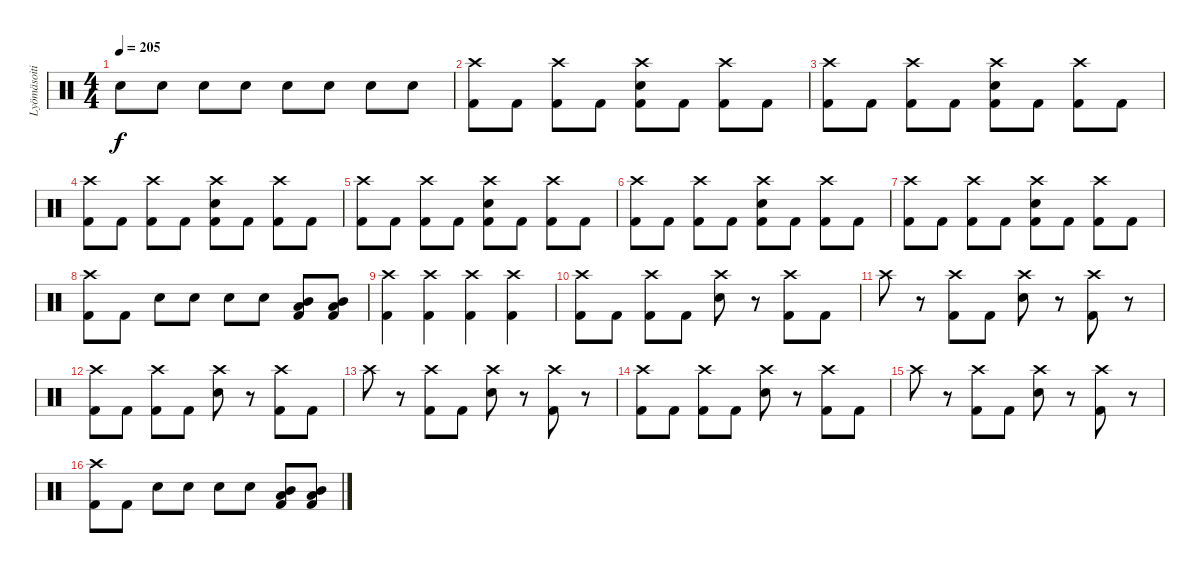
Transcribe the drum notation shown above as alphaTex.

\track ("Lyömäsoitin" "Lyömäsoiti") {instrument percussion}
\staff {score}
\articulation defaults
\ts (4 4)
\tempo 205
\clef neutral
\ks c "Electric Snare (hit)".8{dy f} "Electric Snare (hit)".8 "Electric Snare (hit)".8 "Electric Snare (hit)".8 "Electric Snare (hit)".8 "Electric Snare (hit)".8 "Electric Snare (hit)".8 "Electric Snare (hit)".8
|
("Kick (hit) 2" "Crash high (hit)").8 "Kick (hit) 2".8 ("Kick (hit) 2" "Crash high (hit)").8 "Kick (hit) 2".8 ("Kick (hit) 2" "Electric Snare (hit)" "Crash high (hit)").8 "Kick (hit) 2".8 ("Kick (hit) 2" "Crash high (hit)").8 "Kick (hit) 2".8 |
("Kick (hit) 2" "Crash high (hit)").8 "Kick (hit) 2".8 ("Kick (hit) 2" "Crash high (hit)").8 "Kick (hit) 2".8 ("Kick (hit) 2" "Electric Snare (hit)" "Crash high (hit)").8 "Kick (hit) 2".8 ("Kick (hit) 2" "Crash high (hit)").8 "Kick (hit) 2".8 |
("Kick (hit) 2" "Crash high (hit)").8 "Kick (hit) 2".8 ("Kick (hit) 2" "Crash high (hit)").8 "Kick (hit) 2".8 ("Kick (hit) 2" "Electric Snare (hit)" "Crash high (hit)").8 "Kick (hit) 2".8 ("Kick (hit) 2" "Crash high (hit)").8 "Kick (hit) 2".8 |
("Kick (hit) 2" "Crash high (hit)").8 "Kick (hit) 2".8 ("Kick (hit) 2" "Crash high (hit)").8 "Kick (hit) 2".8 ("Kick (hit) 2" "Electric Snare (hit)" "Crash high (hit)").8 "Kick (hit) 2".8 ("Kick (hit) 2" "Crash high (hit)").8 "Kick (hit) 2".8 |
("Kick (hit) 2" "Crash high (hit)").8 "Kick (hit) 2".8 ("Kick (hit) 2" "Crash high (hit)").8 "Kick (hit) 2".8 ("Kick (hit) 2" "Electric Snare (hit)" "Crash high (hit)").8 "Kick (hit) 2".8 ("Kick (hit) 2" "Crash high (hit)").8 "Kick (hit) 2".8 |
("Kick (hit) 2" "Crash high (hit)").8 "Kick (hit) 2".8 ("Kick (hit) 2" "Crash high (hit)").8 "Kick (hit) 2".8 ("Kick (hit) 2" "Electric Snare (hit)" "Crash high (hit)").8 "Kick (hit) 2".8 ("Kick (hit) 2" "Crash high (hit)").8 "Kick (hit) 2".8 |
("Kick (hit) 2" "Crash high (hit)").8 "Kick (hit) 2".8 "Electric Snare (hit)".8 "Electric Snare (hit)".8 "Electric Snare (hit)".8 "Electric Snare (hit)".8 ("Kick (hit) 2" "Mid Tom (hit)" "Low Tom (hit)").8 ("Kick (hit) 2" "Mid Tom (hit)" "Low Tom (hit)").8 |
("Kick (hit) 2" "Crash high (hit)").4 ("Kick (hit) 2" "Crash high (hit)").4 ("Kick (hit) 2" "Crash high (hit)").4 ("Kick (hit) 2" "Crash high (hit)").4 |
("Kick (hit) 2" "Crash high (hit)").8 "Kick (hit) 2".8 ("Kick (hit) 2" "Crash high (hit)").8 "Kick (hit) 2".8 ("Electric Snare (hit)" "Crash high (hit)").8 r.8 ("Kick (hit) 2" "Crash high (hit)").8 "Kick (hit) 2".8 |
"Crash high (hit)".8 r.8 ("Kick (hit) 2" "Crash high (hit)").8 "Kick (hit) 2".8 ("Electric Snare (hit)" "Crash high (hit)").8 r.8 ("Kick (hit) 2" "Crash high (hit)").8 r.8 |
("Kick (hit) 2" "Crash high (hit)").8 "Kick (hit) 2".8 ("Kick (hit) 2" "Crash high (hit)").8 "Kick (hit) 2".8 ("Electric Snare (hit)" "Crash high (hit)").8 r.8 ("Kick (hit) 2" "Crash high (hit)").8 "Kick (hit) 2".8 |
"Crash high (hit)".8 r.8 ("Kick (hit) 2" "Crash high (hit)").8 "Kick (hit) 2".8 ("Electric Snare (hit)" "Crash high (hit)").8 r.8 ("Kick (hit) 2" "Crash high (hit)").8 r.8 |
("Kick (hit) 2" "Crash high (hit)").8 "Kick (hit) 2".8 ("Kick (hit) 2" "Crash high (hit)").8 "Kick (hit) 2".8 ("Electric Snare (hit)" "Crash high (hit)").8 r.8 ("Kick (hit) 2" "Crash high (hit)").8 "Kick (hit) 2".8 |
"Crash high (hit)".8 r.8 ("Kick (hit) 2" "Crash high (hit)").8 "Kick (hit) 2".8 ("Electric Snare (hit)" "Crash high (hit)").8 r.8 ("Kick (hit) 2" "Crash high (hit)").8 r.8 |
("Kick (hit) 2" "Crash high (hit)").8 "Kick (hit) 2".8 "Electric Snare (hit)".8 "Electric Snare (hit)".8 "Electric Snare (hit)".8 "Electric Snare (hit)".8 ("Kick (hit) 2" "Mid Tom (hit)" "Low Tom (hit)").8 ("Kick (hit) 2" "Mid Tom (hit)" "Low Tom (hit)").8
